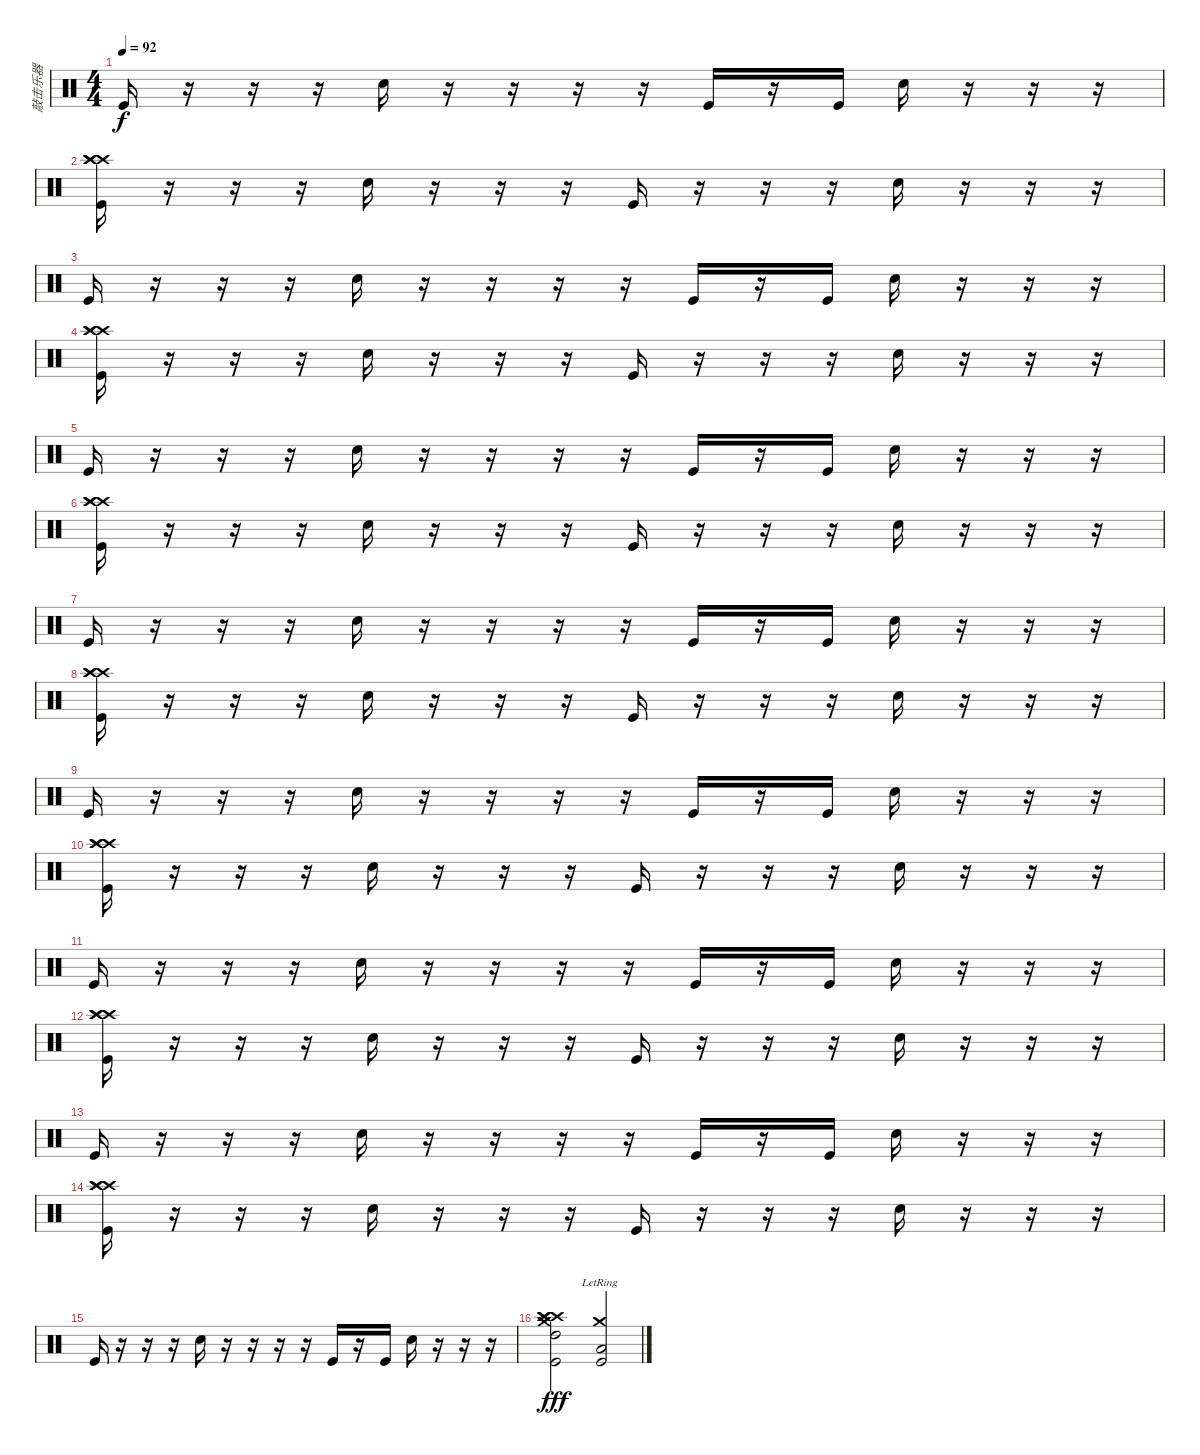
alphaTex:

\track ("敲击乐器" "敲击乐器") {instrument percussion}
\staff {score}
\articulation defaults
\ts (4 4)
\tempo 92
\clef neutral
\ks c "Kick (hit)".16{dy f}
r.16 r.16 r.16 "Electric Snare (hit)".16 r.16 r.16 r.16 r.16 "Kick (hit)".16 r.16 "Kick (hit)".16 "Electric Snare (hit)".16 r.16 r.16 r.16 |
("Kick (hit)" "Crash high (hit)" "Crash high (hit)" "Crash high (hit)").16 r.16 r.16 r.16 "Electric Snare (hit)".16 r.16 r.16 r.16 "Kick (hit)".16 r.16 r.16 r.16 "Electric Snare (hit)".16 r.16 r.16 r.16 |
"Kick (hit)".16 r.16 r.16 r.16 "Electric Snare (hit)".16 r.16 r.16 r.16 r.16 "Kick (hit)".16 r.16 "Kick (hit)".16 "Electric Snare (hit)".16 r.16 r.16 r.16 |
("Kick (hit)" "Crash high (hit)" "Crash high (hit)" "Crash high (hit)").16 r.16 r.16 r.16 "Electric Snare (hit)".16 r.16 r.16 r.16 "Kick (hit)".16 r.16 r.16 r.16 "Electric Snare (hit)".16 r.16 r.16 r.16 |
"Kick (hit)".16 r.16 r.16 r.16 "Electric Snare (hit)".16 r.16 r.16 r.16 r.16 "Kick (hit)".16 r.16 "Kick (hit)".16 "Electric Snare (hit)".16 r.16 r.16 r.16 |
("Kick (hit)" "Crash high (hit)" "Crash high (hit)" "Crash high (hit)").16 r.16 r.16 r.16 "Electric Snare (hit)".16 r.16 r.16 r.16 "Kick (hit)".16 r.16 r.16 r.16 "Electric Snare (hit)".16 r.16 r.16 r.16 |
"Kick (hit)".16 r.16 r.16 r.16 "Electric Snare (hit)".16 r.16 r.16 r.16 r.16 "Kick (hit)".16 r.16 "Kick (hit)".16 "Electric Snare (hit)".16 r.16 r.16 r.16 |
("Kick (hit)" "Crash high (hit)" "Crash high (hit)" "Crash high (hit)").16 r.16 r.16 r.16 "Electric Snare (hit)".16 r.16 r.16 r.16 "Kick (hit)".16 r.16 r.16 r.16 "Electric Snare (hit)".16 r.16 r.16 r.16 |
"Kick (hit)".16 r.16 r.16 r.16 "Electric Snare (hit)".16 r.16 r.16 r.16 r.16 "Kick (hit)".16 r.16 "Kick (hit)".16 "Electric Snare (hit)".16 r.16 r.16 r.16 |
("Kick (hit)" "Crash high (hit)" "Crash high (hit)" "Crash high (hit)").16 r.16 r.16 r.16 "Electric Snare (hit)".16 r.16 r.16 r.16 "Kick (hit)".16 r.16 r.16 r.16 "Electric Snare (hit)".16 r.16 r.16 r.16 |
"Kick (hit)".16 r.16 r.16 r.16 "Electric Snare (hit)".16 r.16 r.16 r.16 r.16 "Kick (hit)".16 r.16 "Kick (hit)".16 "Electric Snare (hit)".16 r.16 r.16 r.16 |
("Kick (hit)" "Crash high (hit)" "Crash high (hit)" "Crash high (hit)").16 r.16 r.16 r.16 "Electric Snare (hit)".16 r.16 r.16 r.16 "Kick (hit)".16 r.16 r.16 r.16 "Electric Snare (hit)".16 r.16 r.16 r.16 |
"Kick (hit)".16 r.16 r.16 r.16 "Electric Snare (hit)".16 r.16 r.16 r.16 r.16 "Kick (hit)".16 r.16 "Kick (hit)".16 "Electric Snare (hit)".16 r.16 r.16 r.16 |
("Kick (hit)" "Crash high (hit)" "Crash high (hit)" "Crash high (hit)").16 r.16 r.16 r.16 "Electric Snare (hit)".16 r.16 r.16 r.16 "Kick (hit)".16 r.16 r.16 r.16 "Electric Snare (hit)".16 r.16 r.16 r.16 |
"Kick (hit)".16 r.16 r.16 r.16 "Electric Snare (hit)".16 r.16 r.16 r.16 r.16 "Kick (hit)".16 r.16 "Kick (hit)".16 "Electric Snare (hit)".16 r.16 r.16 r.16 |
("High Tom (hit)" "Kick (hit)" "Crash high (hit)" "Crash high (hit)" "Crash high (hit)" "Crash medium (hit)").2{dy fff} ("Low Tom (hit)" "Kick (hit)" "Crash medium (hit)"{lr}).2
